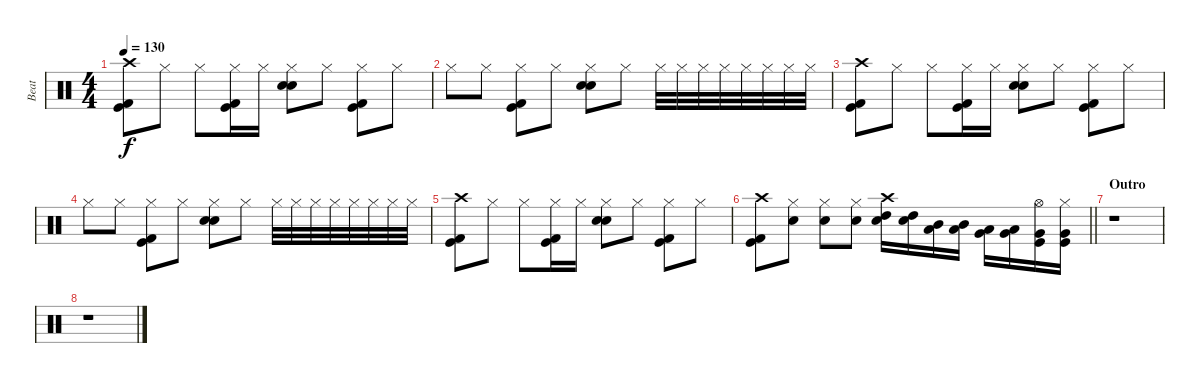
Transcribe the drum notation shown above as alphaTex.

\track ("Beat" "Beat") {instrument percussion}
\staff {score}
\articulation defaults
\ts (4 4)
\tempo 130
\clef neutral
\ks c
("Crash high (hit)" "Kick (hit)" "Kick (hit) 2").8{dy f} "Hi-Hat (closed)".8 "Hi-Hat (closed)".8 ("Hi-Hat (closed)" "Kick (hit)" "Kick (hit) 2").16 "Hi-Hat (closed)".16 ("Hi-Hat (closed)" "Hand Clap (hit)" "Snare (hit) 2").8 "Hi-Hat (closed)".8 ("Hi-Hat (closed)" "Kick (hit)" "Kick (hit) 2").8 "Hi-Hat (closed)".8 |
"Hi-Hat (closed)".8 "Hi-Hat (closed)".8 ("Hi-Hat (closed)" "Kick (hit)" "Kick (hit) 2").8 "Hi-Hat (closed)".8 ("Hi-Hat (closed)" "Hand Clap (hit)" "Snare (hit) 2").8 "Hi-Hat (closed)".8 "Hi-Hat (closed)".32 "Hi-Hat (closed)".32 "Hi-Hat (closed)".32 "Hi-Hat (closed)".32 "Hi-Hat (closed)".32 "Hi-Hat (closed)".32 "Hi-Hat (closed)".32 "Hi-Hat (closed)".32 |
("Crash high (hit)" "Kick (hit)" "Kick (hit) 2").8 "Hi-Hat (closed)".8 "Hi-Hat (closed)".8 ("Hi-Hat (closed)" "Kick (hit)" "Kick (hit) 2").16 "Hi-Hat (closed)".16 ("Hi-Hat (closed)" "Hand Clap (hit)" "Snare (hit) 2").8 "Hi-Hat (closed)".8 ("Hi-Hat (closed)" "Kick (hit)" "Kick (hit) 2").8 "Hi-Hat (closed)".8 |
"Hi-Hat (closed)".8 "Hi-Hat (closed)".8 ("Hi-Hat (closed)" "Kick (hit)" "Kick (hit) 2").8 "Hi-Hat (closed)".8 ("Hi-Hat (closed)" "Hand Clap (hit)" "Snare (hit) 2").8 "Hi-Hat (closed)".8 "Hi-Hat (closed)".32 "Hi-Hat (closed)".32 "Hi-Hat (closed)".32 "Hi-Hat (closed)".32 "Hi-Hat (closed)".32 "Hi-Hat (closed)".32 "Hi-Hat (closed)".32 "Hi-Hat (closed)".32 |
("Crash high (hit)" "Kick (hit)" "Kick (hit) 2").8 "Hi-Hat (closed)".8 "Hi-Hat (closed)".8 ("Hi-Hat (closed)" "Kick (hit)" "Kick (hit) 2").16 "Hi-Hat (closed)".16 ("Hi-Hat (closed)" "Hand Clap (hit)" "Snare (hit) 2").8 "Hi-Hat (closed)".8 ("Hi-Hat (closed)" "Kick (hit)" "Kick (hit) 2").8 "Hi-Hat (closed)".8 |
\barLineRight lightlight
("Crash high (hit)" "Kick (hit)" "Kick (hit) 2").8 ("Hi-Hat (closed)" "Snare (hit) 2").8 ("Hi-Hat (closed)" "Snare (hit) 2").8 ("Hi-Hat (closed)" "Snare (hit) 2").8 ("Crash high (hit)" "High Tom (hit)" "Snare (hit) 2").16 ("High Tom (hit)" "Snare (hit) 2").16 ("Mid Tom (hit)" "Low Tom (hit)").16 ("Mid Tom (hit)" "Low Tom (hit)").16 ("Low Tom (hit)" "Very Low Tom (hit)").16 ("Low Tom (hit)" "Very Low Tom (hit)").16 ("Hi-Hat (open)" "Very Low Tom (hit)" "Kick (hit)").16 ("Hi-Hat (closed)" "Very Low Tom (hit)" "Kick (hit)").16 |
\section ("" "Outro")
r.1 |
r.1
